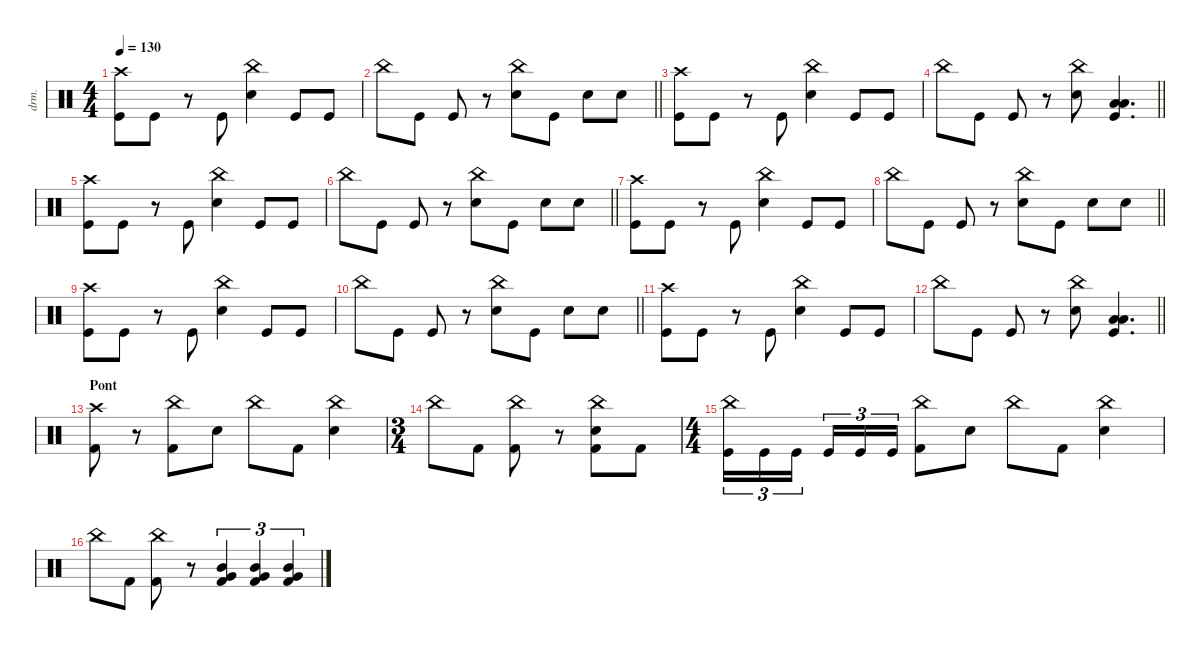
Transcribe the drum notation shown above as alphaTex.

\defaultSystemsLayout 4
\hideDynamics
\bracketExtendMode nobrackets
\track ("Manouche" "drm.") {instrument percussion}
\staff {score}
\articulation defaults
\ts (4 4)
\tempo 130
\clef neutral
\ks c
("Crash high (hit)" "Kick (hit)").8{dy f beam Down} "Kick (hit)".8{beam Down} r.8{beam Down} "Kick (hit)".8{beam Up} ("China (hit)" "Snare (hit) 2").4{beam Down} "Kick (hit)".8{beam Up} "Kick (hit)".8{beam Up} |
\barLineRight lightlight "China (hit)".8{beam Down} "Kick (hit)".8{beam Down} "Kick (hit)".8{beam Up}
r.8{beam Up} ("China (hit)" "Snare (hit) 2").8{beam Down} "Kick (hit)".8{beam Down} "Snare (hit) 2".8{beam Down} "Snare (hit) 2".8{beam Down} |
("Crash high (hit)" "Kick (hit)").8{beam Down} "Kick (hit)".8{beam Down} r.8{beam Down} "Kick (hit)".8{beam Up} ("China (hit)" "Snare (hit) 2").4{beam Down} "Kick (hit)".8{beam Up} "Kick (hit)".8{beam Up} |
\barLineRight lightlight "China (hit)".8{beam Down} "Kick (hit)".8{beam Down} "Kick (hit)".8{beam Up}
r.8{beam Up} ("China (hit)" "Snare (hit) 2").8{beam Down} ("Low Tom (hit)" "Kick (hit)" "Low Floor Tom (hit)").4{d dy ff beam Up} |
("Crash high (hit)" "Kick (hit)").8{dy f beam Down} "Kick (hit)".8{beam Down} r.8{beam Down} "Kick (hit)".8{beam Up} ("China (hit)" "Snare (hit) 2").4{beam Down} "Kick (hit)".8{beam Up} "Kick (hit)".8{beam Up} |
\barLineRight lightlight "China (hit)".8{beam Down} "Kick (hit)".8{beam Down} "Kick (hit)".8{beam Up}
r.8{beam Up} ("China (hit)" "Snare (hit) 2").8{beam Down} "Kick (hit)".8{beam Down} "Snare (hit) 2".8{beam Down} "Snare (hit) 2".8{beam Down} |
("Crash high (hit)" "Kick (hit)").8{beam Down} "Kick (hit)".8{beam Down} r.8{beam Down} "Kick (hit)".8{beam Up} ("China (hit)" "Snare (hit) 2").4{beam Down} "Kick (hit)".8{beam Up} "Kick (hit)".8{beam Up} |
\barLineRight lightlight "China (hit)".8{beam Down} "Kick (hit)".8{beam Down} "Kick (hit)".8{beam Up}
r.8{beam Up} ("China (hit)" "Snare (hit) 2").8{beam Down} "Kick (hit)".8{beam Down} "Snare (hit) 2".8{beam Down} "Snare (hit) 2".8{beam Down} |
("Crash high (hit)" "Kick (hit)").8{beam Down} "Kick (hit)".8{beam Down} r.8{beam Down} "Kick (hit)".8{beam Up} ("China (hit)" "Snare (hit) 2").4{beam Down} "Kick (hit)".8{beam Up} "Kick (hit)".8{beam Up} |
\barLineRight lightlight "China (hit)".8{beam Down} "Kick (hit)".8{beam Down} "Kick (hit)".8{beam Up}
r.8{beam Up} ("China (hit)" "Snare (hit) 2").8{beam Down} "Kick (hit)".8{beam Down} "Snare (hit) 2".8{beam Down} "Snare (hit) 2".8{beam Down} |
("Crash high (hit)" "Kick (hit)").8{beam Down} "Kick (hit)".8{beam Down} r.8{beam Down} "Kick (hit)".8{beam Up} ("China (hit)" "Snare (hit) 2").4{beam Down} "Kick (hit)".8{beam Up} "Kick (hit)".8{beam Up} |
\barLineRight lightlight "China (hit)".8{beam Down} "Kick (hit)".8{beam Down} "Kick (hit)".8{beam Up}
r.8{beam Up} ("China (hit)" "Snare (hit) 2").8{beam Down} ("Low Tom (hit)" "Kick (hit)" "Low Floor Tom (hit)").4{d dy ff beam Up} |
\section ("" "Pont")
("Crash high (hit)" "Kick (hit) 2").8{dy f beam Down} r.8{beam Down} ("China (hit)" "Kick (hit) 2").8{beam Down} "Snare (hit) 2".8{beam Down} "China (hit)".8{beam Down} "Kick (hit) 2".8{beam Down} ("China (hit)" "Snare (hit) 2").4{beam Down} |
\ts (3 4)
\beaming (8 2 2 2)
"China (hit)".8{beam Down} "Kick (hit) 2".8{beam Down} ("China (hit)" "Kick (hit) 2").8{beam Down} r.8{beam Down} ("China (hit)" "Snare (hit) 2" "Kick (hit) 2").8{beam Down} "Kick (hit) 2".8{beam Down} |
\ts (4 4)
\beaming (8 2 2 2 2)
("Kick (hit)" "China (hit)").16{tu (3 2) beam Down} "Kick (hit)".16{tu (3 2) beam Down} "Kick (hit)".16{tu (3 2) beam Down} "Kick (hit)".16{tu (3 2) beam Up} "Kick (hit)".16{tu (3 2) beam Up} "Kick (hit)".16{tu (3 2) beam Up} ("China (hit)" "Kick (hit) 2").8{beam Down} "Snare (hit) 2".8{beam Down} "China (hit)".8{beam Down} "Kick (hit) 2".8{beam Down} ("China (hit)" "Snare (hit) 2").4{beam Down} |
"China (hit)".8{beam Down} "Kick (hit) 2".8{beam Down} ("Kick (hit) 2" "China (hit)").8{beam Down} r.8{beam Down} ("Kick (hit) 2" "Mid Tom (hit)" "Very Low Tom (hit)").4{tu (3 2) beam Up} ("Kick (hit) 2" "Mid Tom (hit)" "Very Low Tom (hit)").4{tu (3 2) beam Up} ("Kick (hit) 2" "Mid Tom (hit)" "Very Low Tom (hit)").4{tu (3 2) beam Up}
